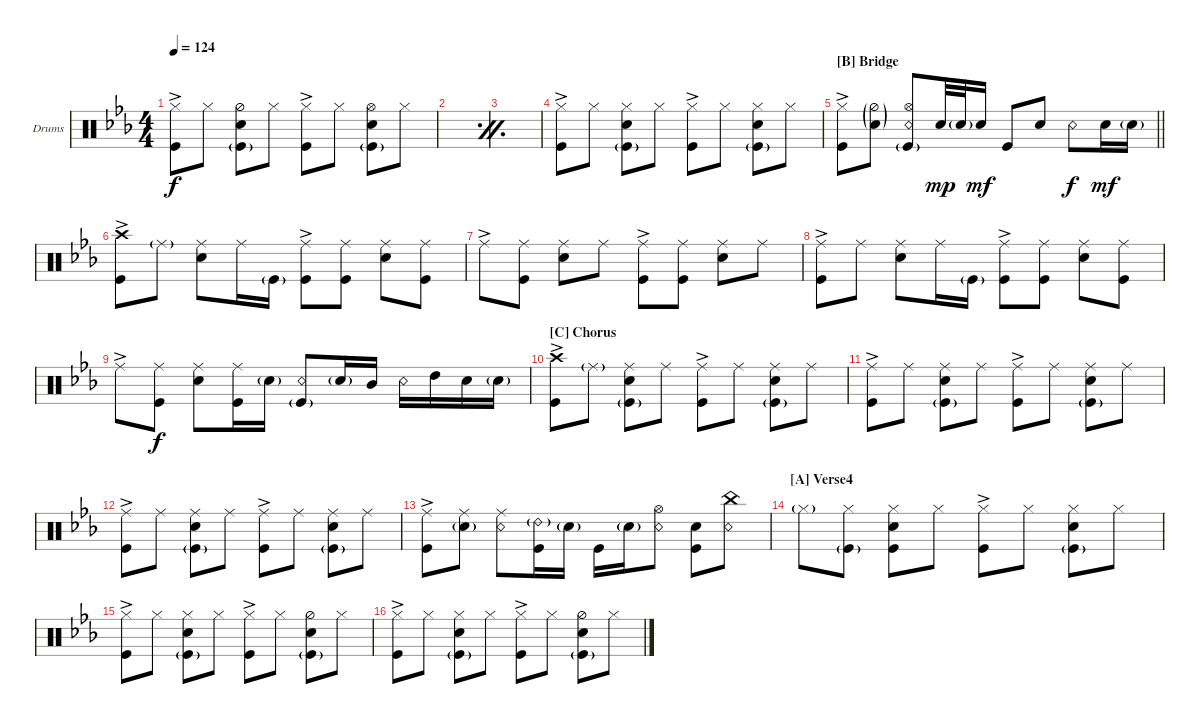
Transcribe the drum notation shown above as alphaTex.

\bracketExtendMode groupsimilarinstruments
\firstSystemTrackNameOrientation horizontal
\otherSystemsTrackNameOrientation horizontal
\track ("Drumkit" "Drums") {instrument percussion}
\staff {score}
\articulation defaults
\ts (4 4)
\tempo 124
\clef neutral
\ks cminor
("Kick (hit)" "Hi-Hat (closed)"{ac}).8{dy f} "Hi-Hat (closed)".8 ("Snare (hit) 2" "Hi-Hat (half)" "Kick (hit)"{g}).8 "Hi-Hat (closed)".8 ("Kick (hit)" "Hi-Hat (closed)"{ac}).8 "Hi-Hat (closed)".8 ("Snare (hit) 2" "Kick (hit)"{g} "Hi-Hat (open)").8 "Hi-Hat (closed)".8 |
\simile firstofdouble
|
\simile secondofdouble
|
\simile none
("Kick (hit)" "Hi-Hat (closed)"{ac}).8 "Hi-Hat (closed)".8 ("Snare (hit) 2" "Hi-Hat (closed)" "Kick (hit)"{g}).8 "Hi-Hat (closed)".8 ("Kick (hit)" "Hi-Hat (closed)"{ac}).8 "Hi-Hat (closed)".8 ("Snare (hit) 2" "Kick (hit)"{g} "Hi-Hat (closed)").8 "Hi-Hat (closed)".8 |
\section ("B" "Bridge")
\barLineRight lightlight
("Kick (hit)" "Hi-Hat (closed)"{ac}).8 ("Hi-Hat (half)"{g} "Snare (hit) 2"{g}).8 ("Snare (rim shot)" "Hi-Hat (open)" "Kick (hit)"{g}).8 "Snare (hit) 2".32{dy mp} "Snare (hit) 2"{g}.32 "Snare (hit) 2".16{dy mf} "Kick (hit)".8 "Snare (hit) 2".8 "Snare (rim shot)".8{dy f} "Snare (hit) 2".16{dy mf} "Snare (hit) 2"{g}.16 |
("Kick (hit)"{ac} "Crash high (hit)").8 "Ride (middle)"{g}.8 ("Ride (middle)" "Snare (hit) 2").8 "Ride (middle)".16 "Kick (hit)"{g}.16 ("Kick (hit)" "Ride (middle)"{ac}).8 ("Ride (middle)" "Kick (hit)").8 ("Snare (hit) 2" "Ride (middle)").8 ("Ride (middle)" "Kick (hit)").8 |
"Ride (middle)"{ac}.8 ("Ride (middle)" "Kick (hit)").8 ("Snare (hit) 2" "Ride (middle)").8 "Ride (middle)".8 ("Kick (hit)"{ac} "Ride (middle)"{ac}).8 ("Ride (middle)" "Kick (hit)").8 ("Snare (hit) 2" "Ride (middle)").8 "Ride (middle)".8 |
("Kick (hit)"{ac} "Ride (middle)"{ac}).8 "Ride (middle)".8 ("Ride (middle)" "Snare (hit) 2").8 "Ride (middle)".16 "Kick (hit)"{g}.16 ("Kick (hit)" "Ride (middle)"{ac}).8 ("Ride (middle)" "Kick (hit)").8 ("Snare (hit) 2" "Ride (middle)").8 ("Ride (middle)" "Kick (hit)").8 |
"Ride (middle)"{ac}.8 ("Ride (middle)" "Kick (hit)").8{dy f} ("Snare (hit) 2" "Ride (middle)").8 ("Kick (hit)" "Ride (middle)").16 "Snare (hit) 2"{g}.16 ("Snare (rim shot)" "Kick (hit)"{g}).8 "Snare (hit) 2"{g}.16 "Mid Tom (hit)".16 "Snare (rim shot)".16 "High Tom (hit)".16 "Snare (hit) 2".16 "Snare (hit) 2"{g}.16 |
\section ("C" "Chorus")
("Kick (hit)" "Crash high (hit)"{ac}).8 "Ride (middle)"{g}.8 ("Snare (hit) 2" "Ride (middle)" "Kick (hit)"{g}).8 "Ride (middle)".8 ("Kick (hit)" "Ride (middle)"{ac}).8 "Ride (middle)".8 ("Snare (hit) 2" "Ride (middle)" "Kick (hit)"{g}).8 "Ride (middle)".8 |
("Kick (hit)" "Ride (middle)"{ac}).8 "Ride (middle)".8 ("Snare (hit) 2" "Ride (middle)" "Kick (hit)"{g}).8 "Ride (middle)".8 ("Kick (hit)" "Ride (middle)"{ac}).8 "Ride (middle)".8 ("Snare (hit) 2" "Ride (middle)" "Kick (hit)"{g}).8 "Ride (middle)".8 |
("Kick (hit)" "Ride (middle)"{ac}).8 "Ride (middle)".8 ("Snare (hit) 2" "Ride (middle)" "Kick (hit)"{g}).8 "Ride (middle)".8 ("Kick (hit)" "Ride (middle)"{ac}).8 "Ride (middle)".8 ("Snare (hit) 2" "Ride (middle)" "Kick (hit)"{g}).8 "Ride (middle)".8 |
("Kick (hit)" "Ride (middle)"{ac}).8 ("Ride (middle)" "Snare (hit) 2"{g}).8 ("Snare (rim shot)" "Ride (middle)").8 ("Ride (bell) 2"{g} "Kick (hit)").16 "Snare (hit) 2"{g}.16 "Kick (hit)".16 "Snare (hit) 2"{g}.16 ("Snare (rim shot)" "Hi-Hat (open)").8 ("Snare (hit) 2" "Kick (hit)").8 ("China (hit)" "Snare (rim shot)").8 |
\section ("A" "Verse4")
"Hi-Hat (closed)"{g}.8 ("Hi-Hat (closed)" "Kick (hit)"{g}).8 ("Snare (hit) 2" "Hi-Hat (closed)" "Kick (hit)").8 "Hi-Hat (closed)".8 ("Kick (hit)" "Hi-Hat (closed)"{ac}).8 "Hi-Hat (closed)".8 ("Snare (hit) 2" "Kick (hit)"{g} "Hi-Hat (closed)").8 "Hi-Hat (closed)".8 |
("Kick (hit)" "Hi-Hat (closed)"{ac}).8 "Hi-Hat (closed)".8 ("Snare (hit) 2" "Hi-Hat (closed)" "Kick (hit)"{g}).8 "Hi-Hat (closed)".8 ("Kick (hit)" "Hi-Hat (closed)"{ac}).8 "Hi-Hat (closed)".8 ("Snare (hit) 2" "Kick (hit)"{g} "Hi-Hat (half)").8 "Hi-Hat (closed)".8 |
("Kick (hit)" "Hi-Hat (closed)"{ac}).8 "Hi-Hat (closed)".8 ("Snare (hit) 2" "Hi-Hat (closed)" "Kick (hit)"{g}).8 "Hi-Hat (closed)".8 ("Kick (hit)" "Hi-Hat (closed)"{ac}).8 "Hi-Hat (closed)".8 ("Snare (hit) 2" "Kick (hit)"{g} "Hi-Hat (half)").8 "Hi-Hat (closed)".8
